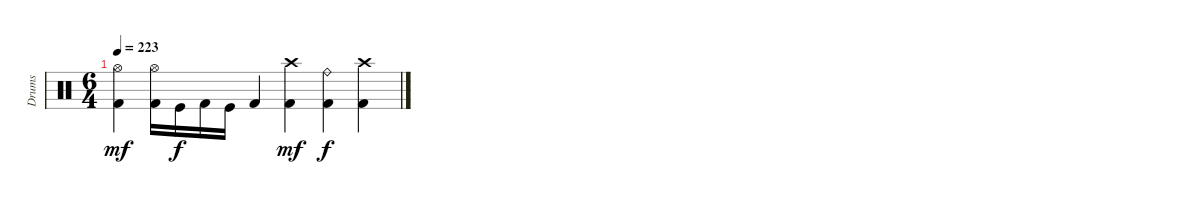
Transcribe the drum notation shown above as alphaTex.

\track ("Drums" "Drums") {instrument percussion}
\staff {score}
\articulation defaults
\ts (6 4)
\tempo 223
\clef neutral
\ks c
("Hi-Hat (open)" "Kick (hit) 2").4{dy mf} ("Hi-Hat (open)" "Kick (hit) 2").16 "Kick (hit)".16{dy f} "Kick (hit) 2".16 "Kick (hit)".16 "Kick (hit) 2".4 ("Crash high (hit)" "Kick (hit) 2").4{dy mf} ("Ride (bell)" "Kick (hit) 2").4{dy f} ("Crash high (hit)" "Kick (hit) 2").4
